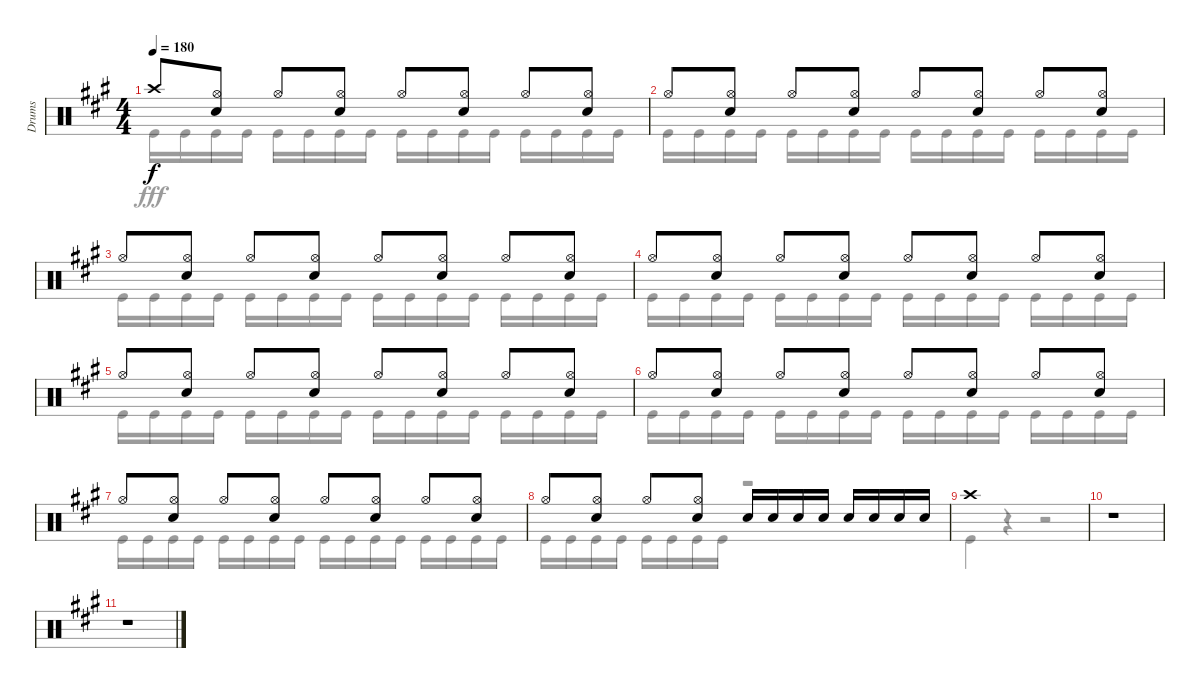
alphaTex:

\track ("Drums" "Drums") {instrument percussion}
\staff {score}
\articulation defaults
\voice
\ts (4 4)
\tempo 180
\clef neutral
\ks a "Crash high (hit)".8{dy f}
("Hi-Hat (open)" "Snare (hit) 2").8 "Hi-Hat (open)".8 ("Hi-Hat (open)" "Snare (hit) 2").8 "Hi-Hat (open)".8 ("Hi-Hat (open)" "Snare (hit) 2").8 "Hi-Hat (open)".8 ("Hi-Hat (open)" "Snare (hit) 2").8 |
"Hi-Hat (open)".8 ("Hi-Hat (open)" "Snare (hit) 2").8 "Hi-Hat (open)".8 ("Hi-Hat (open)" "Snare (hit) 2").8 "Hi-Hat (open)".8 ("Hi-Hat (open)" "Snare (hit) 2").8 "Hi-Hat (open)".8 ("Hi-Hat (open)" "Snare (hit) 2").8 |
"Hi-Hat (open)".8 ("Hi-Hat (open)" "Snare (hit) 2").8 "Hi-Hat (open)".8 ("Hi-Hat (open)" "Snare (hit) 2").8 "Hi-Hat (open)".8 ("Hi-Hat (open)" "Snare (hit) 2").8 "Hi-Hat (open)".8 ("Hi-Hat (open)" "Snare (hit) 2").8 |
"Hi-Hat (open)".8 ("Hi-Hat (open)" "Snare (hit) 2").8 "Hi-Hat (open)".8 ("Hi-Hat (open)" "Snare (hit) 2").8 "Hi-Hat (open)".8 ("Hi-Hat (open)" "Snare (hit) 2").8 "Hi-Hat (open)".8 ("Hi-Hat (open)" "Snare (hit) 2").8 |
"Hi-Hat (open)".8 ("Hi-Hat (open)" "Snare (hit) 2").8 "Hi-Hat (open)".8 ("Hi-Hat (open)" "Snare (hit) 2").8 "Hi-Hat (open)".8 ("Hi-Hat (open)" "Snare (hit) 2").8 "Hi-Hat (open)".8 ("Hi-Hat (open)" "Snare (hit) 2").8 |
"Hi-Hat (open)".8 ("Hi-Hat (open)" "Snare (hit) 2").8 "Hi-Hat (open)".8 ("Hi-Hat (open)" "Snare (hit) 2").8 "Hi-Hat (open)".8 ("Hi-Hat (open)" "Snare (hit) 2").8 "Hi-Hat (open)".8 ("Hi-Hat (open)" "Snare (hit) 2").8 |
"Hi-Hat (open)".8 ("Hi-Hat (open)" "Snare (hit) 2").8 "Hi-Hat (open)".8 ("Hi-Hat (open)" "Snare (hit) 2").8 "Hi-Hat (open)".8 ("Hi-Hat (open)" "Snare (hit) 2").8 "Hi-Hat (open)".8 ("Hi-Hat (open)" "Snare (hit) 2").8 |
"Hi-Hat (open)".8 ("Hi-Hat (open)" "Snare (hit) 2").8 "Hi-Hat (open)".8 ("Hi-Hat (open)" "Snare (hit) 2").8 "Snare (hit) 2".16 "Snare (hit) 2".16 "Snare (hit) 2".16 "Snare (hit) 2".16 "Snare (hit) 2".16 "Snare (hit) 2".16 "Snare (hit) 2".16 "Snare (hit) 2".16 |
"Crash high (hit)".1 |
r.1 |
r.1
\voice
\clef neutral
\ottava regular
\simile none
\ks a "Kick (hit)".16{dy fff} "Kick (hit)".16 "Kick (hit)".16 "Kick (hit)".16 "Kick (hit)".16 "Kick (hit)".16 "Kick (hit)".16 "Kick (hit)".16 "Kick (hit)".16 "Kick (hit)".16 "Kick (hit)".16 "Kick (hit)".16 "Kick (hit)".16 "Kick (hit)".16 "Kick (hit)".16 "Kick (hit)".16
|
"Kick (hit)".16 "Kick (hit)".16 "Kick (hit)".16 "Kick (hit)".16 "Kick (hit)".16 "Kick (hit)".16 "Kick (hit)".16 "Kick (hit)".16 "Kick (hit)".16 "Kick (hit)".16 "Kick (hit)".16 "Kick (hit)".16 "Kick (hit)".16 "Kick (hit)".16 "Kick (hit)".16 "Kick (hit)".16 |
"Kick (hit)".16 "Kick (hit)".16 "Kick (hit)".16 "Kick (hit)".16 "Kick (hit)".16 "Kick (hit)".16 "Kick (hit)".16 "Kick (hit)".16 "Kick (hit)".16 "Kick (hit)".16 "Kick (hit)".16 "Kick (hit)".16 "Kick (hit)".16 "Kick (hit)".16 "Kick (hit)".16 "Kick (hit)".16 |
"Kick (hit)".16 "Kick (hit)".16 "Kick (hit)".16 "Kick (hit)".16 "Kick (hit)".16 "Kick (hit)".16 "Kick (hit)".16 "Kick (hit)".16 "Kick (hit)".16 "Kick (hit)".16 "Kick (hit)".16 "Kick (hit)".16 "Kick (hit)".16 "Kick (hit)".16 "Kick (hit)".16 "Kick (hit)".16 |
"Kick (hit)".16 "Kick (hit)".16 "Kick (hit)".16 "Kick (hit)".16 "Kick (hit)".16 "Kick (hit)".16 "Kick (hit)".16 "Kick (hit)".16 "Kick (hit)".16 "Kick (hit)".16 "Kick (hit)".16 "Kick (hit)".16 "Kick (hit)".16 "Kick (hit)".16 "Kick (hit)".16 "Kick (hit)".16 |
"Kick (hit)".16 "Kick (hit)".16 "Kick (hit)".16 "Kick (hit)".16 "Kick (hit)".16 "Kick (hit)".16 "Kick (hit)".16 "Kick (hit)".16 "Kick (hit)".16 "Kick (hit)".16 "Kick (hit)".16 "Kick (hit)".16 "Kick (hit)".16 "Kick (hit)".16 "Kick (hit)".16 "Kick (hit)".16 |
"Kick (hit)".16 "Kick (hit)".16 "Kick (hit)".16 "Kick (hit)".16 "Kick (hit)".16 "Kick (hit)".16 "Kick (hit)".16 "Kick (hit)".16 "Kick (hit)".16 "Kick (hit)".16 "Kick (hit)".16 "Kick (hit)".16 "Kick (hit)".16 "Kick (hit)".16 "Kick (hit)".16 "Kick (hit)".16 |
"Kick (hit)".16 "Kick (hit)".16 "Kick (hit)".16 "Kick (hit)".16 "Kick (hit)".16 "Kick (hit)".16 "Kick (hit)".16 "Kick (hit)".16 r.2 |
"Kick (hit)".4 r.4 r.2 |
r.1 |
r.1
